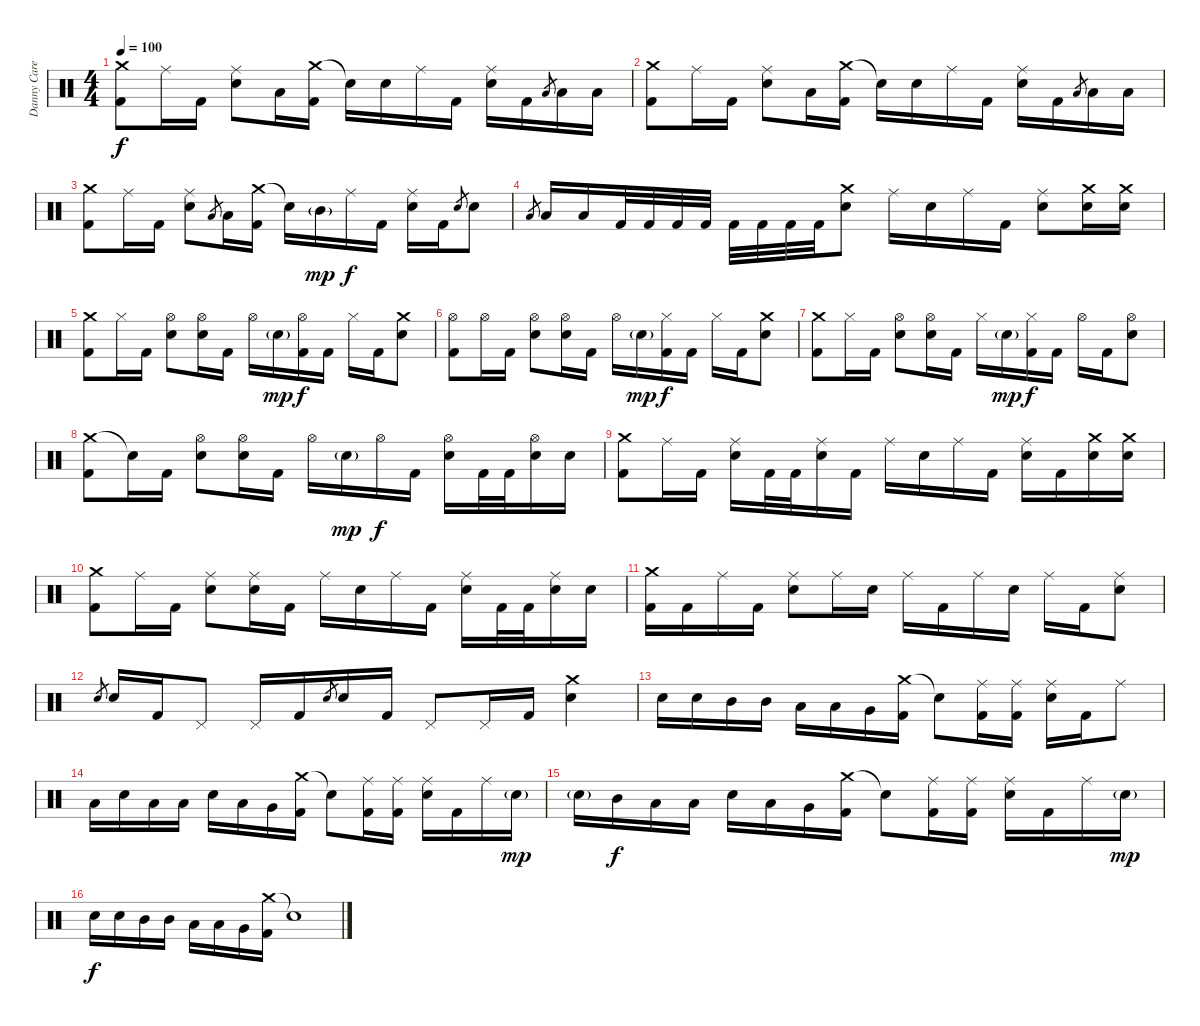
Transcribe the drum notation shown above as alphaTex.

\track ("Danny Carey" "Danny Care") {instrument percussion}
\staff {score}
\articulation defaults
\ts (4 4)
\tempo 100
\clef neutral
\ks c
("Crash medium (hit)" "Kick (hit) 2").8{dy f} "Ride (middle)".16 "Kick (hit) 2".16 ("Ride (middle)" "Snare (hit) 2").8 "Low Tom (hit)".16 ("Crash medium (hit)" "Kick (hit) 2").16 "Snare (hit)"{t}.16 "Snare (hit) 2".16 "Ride (middle)".16 "Kick (hit) 2".16 ("Ride (middle)" "Snare (hit) 2").16 "Kick (hit) 2".16 "Low Tom (hit)".8{gr} "Low Tom (hit)".16 "Low Tom (hit)".16 |
("Crash medium (hit)" "Kick (hit) 2").8 "Ride (middle)".16 "Kick (hit) 2".16 ("Ride (middle)" "Snare (hit) 2").8 "Low Tom (hit)".16 ("Crash medium (hit)" "Kick (hit) 2").16 "Snare (hit)"{t}.16 "Snare (hit) 2".16 "Ride (middle)".16 "Kick (hit) 2".16 ("Ride (middle)" "Snare (hit) 2").16 "Kick (hit) 2".16 "Low Tom (hit)".8{gr} "Low Tom (hit)".16 "Low Tom (hit)".16 |
("Crash medium (hit)" "Kick (hit) 2").8 "Ride (middle)".16 "Kick (hit) 2".16 ("Ride (middle)" "Snare (hit) 2").8 "Low Tom (hit)".8{gr} "Low Tom (hit)".16 ("Crash medium (hit)" "Kick (hit) 2").16 "Snare (hit)"{t}.16 "Mid Tom (hit)"{g}.16{dy mp} "Ride (middle)".16{dy f} "Kick (hit) 2".16 ("Ride (middle)" "Snare (hit) 2").16 "Kick (hit) 2".16 "Snare (hit) 2".8{gr} "Snare (hit) 2".8 |
"Low Tom (hit)".8{gr} "Low Tom (hit)".16 "Low Tom (hit)".16 "Kick (hit) 2".32 "Kick (hit) 2".32 "Kick (hit) 2".32 "Kick (hit) 2".32 "Kick (hit) 2".32 "Kick (hit) 2".32 "Kick (hit) 2".32 "Kick (hit) 2".32 ("Crash medium (hit)" "Snare (hit) 2").8 "Ride (middle)".16 "Snare (hit) 2".16 "Ride (middle)".16 "Kick (hit) 2".16 ("Ride (middle)" "Snare (hit) 2").8 ("Crash medium (hit)" "Snare (hit) 2").16 ("Crash medium (hit)" "Snare (hit) 2").16 |
("Crash medium (hit)" "Kick (hit) 2").8 "Hi-Hat (closed)".16 "Kick (hit) 2".16 ("Hi-Hat (open)" "Snare (hit) 2").8 ("Hi-Hat (open)" "Snare (hit) 2").16 "Kick (hit) 2".16 "Hi-Hat (open)".16 "Snare (hit) 2"{g}.16{dy mp} ("Hi-Hat (open)" "Kick (hit) 2").16{dy f} "Kick (hit) 2".16 "Hi-Hat (closed)".16 "Kick (hit) 2".16 ("Crash medium (hit)" "Snare (hit) 2").8 |
("Hi-Hat (open)" "Kick (hit) 2").8 "Hi-Hat (open)".16 "Kick (hit) 2".16 ("Hi-Hat (open)" "Snare (hit) 2").8 ("Hi-Hat (open)" "Snare (hit) 2").16 "Kick (hit) 2".16 "Hi-Hat (open)".16 "Snare (hit) 2"{g}.16{dy mp} ("Hi-Hat (closed)" "Kick (hit) 2").16{dy f} "Kick (hit) 2".16 "Hi-Hat (closed)".16 "Kick (hit) 2".16 ("Crash medium (hit)" "Snare (hit) 2").8 |
("Crash medium (hit)" "Kick (hit) 2").8 "Hi-Hat (closed)".16 "Kick (hit) 2".16 ("Hi-Hat (open)" "Snare (hit) 2").8 ("Hi-Hat (open)" "Snare (hit) 2").16 "Kick (hit) 2".16 "Hi-Hat (closed)".16 "Snare (hit) 2"{g}.16{dy mp} ("Hi-Hat (closed)" "Kick (hit) 2").16{dy f} "Kick (hit) 2".16 "Hi-Hat (open)".16 "Kick (hit) 2".16 ("Hi-Hat (open)" "Snare (hit) 2").8 |
("Crash medium (hit)" "Kick (hit) 2").8 "Snare (hit)"{t}.16 "Kick (hit) 2".16 ("Hi-Hat (open)" "Snare (hit) 2").8 ("Hi-Hat (open)" "Snare (hit) 2").16 "Kick (hit) 2".16 "Hi-Hat (open)".16 "Snare (hit) 2"{g}.16{dy mp} "Hi-Hat (open)".16{dy f} "Kick (hit) 2".16 ("Hi-Hat (open)" "Snare (hit) 2").16 "Kick (hit) 2".32 "Kick (hit) 2".32 ("Hi-Hat (open)" "Snare (hit) 2").16 "Snare (hit) 2".16 |
("Crash medium (hit)" "Kick (hit) 2").8 "Ride (middle)".16 "Kick (hit) 2".16 ("Ride (middle)" "Snare (hit) 2").16 "Kick (hit) 2".32 "Kick (hit) 2".32 ("Ride (middle)" "Snare (hit) 2").16 "Kick (hit) 2".16 "Ride (middle)".16 "Snare (hit) 2".16 "Ride (middle)".16 "Kick (hit) 2".16 ("Ride (middle)" "Snare (hit) 2").16 "Kick (hit) 2".16 ("Crash medium (hit)" "Snare (hit) 2").16 ("Crash medium (hit)" "Snare (hit) 2").16 |
("Crash medium (hit)" "Kick (hit) 2").8 "Ride (middle)".16 "Kick (hit) 2".16 ("Ride (middle)" "Snare (hit) 2").8 ("Ride (middle)" "Snare (hit) 2").16 "Kick (hit) 2".16 "Ride (middle)".16 "Snare (hit) 2".16 "Ride (middle)".16 "Kick (hit) 2".16 ("Ride (middle)" "Snare (hit) 2").16 "Kick (hit) 2".32 "Kick (hit) 2".32 ("Ride (middle)" "Snare (hit) 2").16 "Snare (hit) 2".16 |
("Crash medium (hit)" "Kick (hit) 2").16 "Kick (hit) 2".16 "Ride (middle)".16 "Kick (hit) 2".16 ("Ride (middle)" "Snare (hit) 2").8 "Ride (middle)".16 "Snare (hit) 2".16 "Ride (middle)".16 "Kick (hit) 2".16 "Ride (middle)".16 "Snare (hit) 2".16 "Ride (middle)".16 "Kick (hit) 2".16 ("Ride (middle)" "Snare (hit) 2").8 |
"Snare (hit) 2".8{gr} "Snare (hit) 2".16 "Kick (hit) 2".16 "Pedal Hi-Hat (hit)".8 "Pedal Hi-Hat (hit)".16 "Kick (hit) 2".16 "Snare (hit) 2".8{gr} "Snare (hit) 2".16 "Kick (hit) 2".16 "Pedal Hi-Hat (hit)".8 "Pedal Hi-Hat (hit)".16 "Kick (hit) 2".16 ("Crash medium (hit)" "Snare (hit) 2").4 |
"Snare (hit) 2".16 "Snare (hit) 2".16 "Mid Tom (hit)".16 "Mid Tom (hit)".16 "Low Tom (hit)".16 "Low Tom (hit)".16 "Very Low Tom (hit)".16 ("Crash medium (hit)" "Kick (hit) 2").16 "Snare (hit)"{t}.8 ("Ride (middle)" "Kick (hit) 2").16 ("Ride (middle)" "Kick (hit) 2").16 ("Ride (middle)" "Snare (hit) 2").16 "Kick (hit) 2".16 "Ride (middle)".8 |
"Low Tom (hit)".16 "Snare (hit) 2".16 "Low Tom (hit)".16 "Low Tom (hit)".16 "Snare (hit) 2".16 "Low Tom (hit)".16 "Very Low Tom (hit)".16 ("Crash medium (hit)" "Kick (hit) 2").16 "Snare (hit)"{t}.8 ("Ride (middle)" "Kick (hit) 2").16 ("Ride (middle)" "Kick (hit) 2").16 ("Ride (middle)" "Snare (hit) 2").16 "Kick (hit) 2".16 "Ride (middle)".16 "Snare (hit) 2"{g}.16{dy mp} |
"Snare (hit) 2"{g}.16 "Mid Tom (hit)".16{dy f} "Low Tom (hit)".16 "Low Tom (hit)".16 "Snare (hit) 2".16 "Low Tom (hit)".16 "Very Low Tom (hit)".16 ("Crash medium (hit)" "Kick (hit) 2").16 "Snare (hit)"{t}.8 ("Ride (middle)" "Kick (hit) 2").16 ("Ride (middle)" "Kick (hit) 2").16 ("Ride (middle)" "Snare (hit) 2").16 "Kick (hit) 2".16 "Ride (middle)".16 "Snare (hit) 2"{g}.16{dy mp} |
"Snare (hit) 2".16{dy f} "Snare (hit) 2".16 "Mid Tom (hit)".16 "Mid Tom (hit)".16 "Low Tom (hit)".16 "Low Tom (hit)".16 "Very Low Tom (hit)".16 ("Crash medium (hit)" "Kick (hit) 2").16 "Snare (hit)"{t}.1
